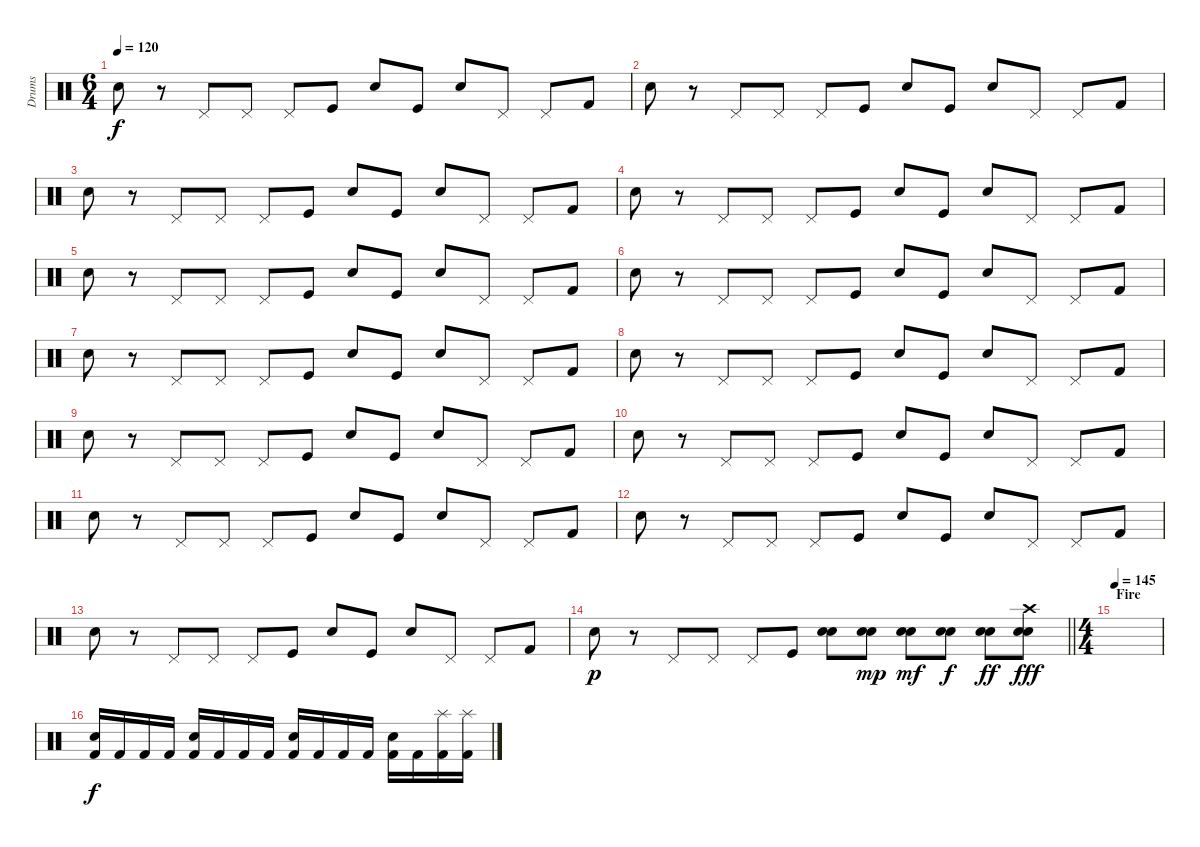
\track ("Drums" "Drums") {instrument percussion}
\staff {score}
\articulation defaults
\ts (6 4)
\tempo 120
\clef neutral
\ks c "Electric Snare (hit)".8{dy f}
r.8 "Pedal Hi-Hat (hit)".8 "Pedal Hi-Hat (hit)".8 "Pedal Hi-Hat (hit)".8 "Kick (hit)".8 "Electric Snare (hit)".8 "Kick (hit)".8 "Electric Snare (hit)".8 "Pedal Hi-Hat (hit)".8 "Pedal Hi-Hat (hit)".8 "Kick (hit) 2".8 |
"Electric Snare (hit)".8 r.8 "Pedal Hi-Hat (hit)".8 "Pedal Hi-Hat (hit)".8 "Pedal Hi-Hat (hit)".8 "Kick (hit)".8 "Electric Snare (hit)".8 "Kick (hit)".8 "Electric Snare (hit)".8 "Pedal Hi-Hat (hit)".8 "Pedal Hi-Hat (hit)".8 "Kick (hit) 2".8 |
"Electric Snare (hit)".8 r.8 "Pedal Hi-Hat (hit)".8 "Pedal Hi-Hat (hit)".8 "Pedal Hi-Hat (hit)".8 "Kick (hit)".8 "Electric Snare (hit)".8 "Kick (hit)".8 "Electric Snare (hit)".8 "Pedal Hi-Hat (hit)".8 "Pedal Hi-Hat (hit)".8 "Kick (hit) 2".8 |
"Electric Snare (hit)".8 r.8 "Pedal Hi-Hat (hit)".8 "Pedal Hi-Hat (hit)".8 "Pedal Hi-Hat (hit)".8 "Kick (hit)".8 "Electric Snare (hit)".8 "Kick (hit)".8 "Electric Snare (hit)".8 "Pedal Hi-Hat (hit)".8 "Pedal Hi-Hat (hit)".8 "Kick (hit) 2".8 |
"Electric Snare (hit)".8 r.8 "Pedal Hi-Hat (hit)".8 "Pedal Hi-Hat (hit)".8 "Pedal Hi-Hat (hit)".8 "Kick (hit)".8 "Electric Snare (hit)".8 "Kick (hit)".8 "Electric Snare (hit)".8 "Pedal Hi-Hat (hit)".8 "Pedal Hi-Hat (hit)".8 "Kick (hit) 2".8 |
"Electric Snare (hit)".8 r.8 "Pedal Hi-Hat (hit)".8 "Pedal Hi-Hat (hit)".8 "Pedal Hi-Hat (hit)".8 "Kick (hit)".8 "Electric Snare (hit)".8 "Kick (hit)".8 "Electric Snare (hit)".8 "Pedal Hi-Hat (hit)".8 "Pedal Hi-Hat (hit)".8 "Kick (hit) 2".8 |
"Electric Snare (hit)".8 r.8 "Pedal Hi-Hat (hit)".8 "Pedal Hi-Hat (hit)".8 "Pedal Hi-Hat (hit)".8 "Kick (hit)".8 "Electric Snare (hit)".8 "Kick (hit)".8 "Electric Snare (hit)".8 "Pedal Hi-Hat (hit)".8 "Pedal Hi-Hat (hit)".8 "Kick (hit) 2".8 |
"Electric Snare (hit)".8 r.8 "Pedal Hi-Hat (hit)".8 "Pedal Hi-Hat (hit)".8 "Pedal Hi-Hat (hit)".8 "Kick (hit)".8 "Electric Snare (hit)".8 "Kick (hit)".8 "Electric Snare (hit)".8 "Pedal Hi-Hat (hit)".8 "Pedal Hi-Hat (hit)".8 "Kick (hit) 2".8 |
"Electric Snare (hit)".8 r.8 "Pedal Hi-Hat (hit)".8 "Pedal Hi-Hat (hit)".8 "Pedal Hi-Hat (hit)".8 "Kick (hit)".8 "Electric Snare (hit)".8 "Kick (hit)".8 "Electric Snare (hit)".8 "Pedal Hi-Hat (hit)".8 "Pedal Hi-Hat (hit)".8 "Kick (hit) 2".8 |
"Electric Snare (hit)".8 r.8 "Pedal Hi-Hat (hit)".8 "Pedal Hi-Hat (hit)".8 "Pedal Hi-Hat (hit)".8 "Kick (hit)".8 "Electric Snare (hit)".8 "Kick (hit)".8 "Electric Snare (hit)".8 "Pedal Hi-Hat (hit)".8 "Pedal Hi-Hat (hit)".8 "Kick (hit) 2".8 |
"Electric Snare (hit)".8 r.8 "Pedal Hi-Hat (hit)".8 "Pedal Hi-Hat (hit)".8 "Pedal Hi-Hat (hit)".8 "Kick (hit)".8 "Electric Snare (hit)".8 "Kick (hit)".8 "Electric Snare (hit)".8 "Pedal Hi-Hat (hit)".8 "Pedal Hi-Hat (hit)".8 "Kick (hit) 2".8 |
"Electric Snare (hit)".8 r.8 "Pedal Hi-Hat (hit)".8 "Pedal Hi-Hat (hit)".8 "Pedal Hi-Hat (hit)".8 "Kick (hit)".8 "Electric Snare (hit)".8 "Kick (hit)".8 "Electric Snare (hit)".8 "Pedal Hi-Hat (hit)".8 "Pedal Hi-Hat (hit)".8 "Kick (hit) 2".8 |
"Electric Snare (hit)".8 r.8 "Pedal Hi-Hat (hit)".8 "Pedal Hi-Hat (hit)".8 "Pedal Hi-Hat (hit)".8 "Kick (hit)".8 "Electric Snare (hit)".8 "Kick (hit)".8 "Electric Snare (hit)".8 "Pedal Hi-Hat (hit)".8 "Pedal Hi-Hat (hit)".8 "Kick (hit) 2".8 |
\barLineRight lightlight "Electric Snare (hit)".8{dy p}
r.8 "Pedal Hi-Hat (hit)".8 "Pedal Hi-Hat (hit)".8 "Pedal Hi-Hat (hit)".8 "Kick (hit)".8 ("Snare (hit) 2" "Electric Snare (hit)").8 ("Snare (hit) 2" "Electric Snare (hit)").8{dy mp} ("Snare (hit) 2" "Electric Snare (hit)").8{dy mf} ("Snare (hit) 2" "Electric Snare (hit)").8{dy f} ("Snare (hit) 2" "Electric Snare (hit)").8{dy ff} ("Crash high (hit)" "Snare (hit) 2" "Electric Snare (hit)").8{dy fff} |
\ts (4 4)
\section ("" "Fire")
\tempo 145
|
("Electric Snare (hit)" "Kick (hit) 2").16{dy f volume 9} "Kick (hit) 2".16 "Kick (hit) 2".16 "Kick (hit) 2".16 ("Electric Snare (hit)" "Kick (hit) 2").16 "Kick (hit) 2".16 "Kick (hit) 2".16 "Kick (hit) 2".16 ("Electric Snare (hit)" "Kick (hit) 2").16 "Kick (hit) 2".16 "Kick (hit) 2".16 "Kick (hit) 2".16 ("Electric Snare (hit)" "Kick (hit) 2").16 "Kick (hit) 2".16 ("Splash (hit)" "Kick (hit) 2").16 ("Splash (hit)" "Kick (hit) 2").16
